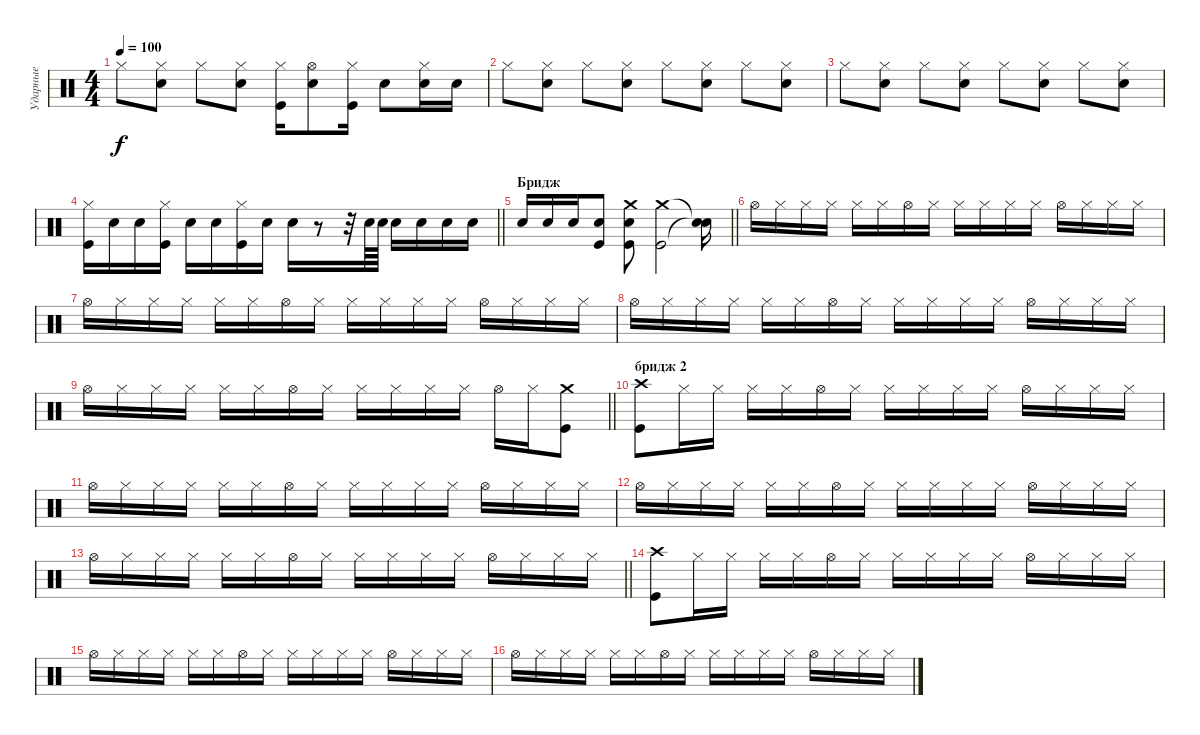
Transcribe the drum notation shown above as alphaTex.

\track ("Ударные" "Ударные") {instrument percussion}
\staff {score}
\articulation defaults
\ts (4 4)
\tempo 100
\clef neutral
\ks c "Hi-Hat (closed)".8{dy f}
("Hi-Hat (closed)" "Snare (hit) 2").8 "Hi-Hat (closed)".8 ("Hi-Hat (closed)" "Snare (hit) 2").8 ("Hi-Hat (closed)" "Kick (hit)").16 ("Hi-Hat (open)" "Electric Snare (hit)").8 ("Hi-Hat (closed)" "Kick (hit)").16 "Electric Snare (hit)".8 ("Hi-Hat (closed)" "Electric Snare (hit)").16 "Electric Snare (hit)".16 |
"Hi-Hat (closed)".8 ("Hi-Hat (closed)" "Snare (hit) 2").8 "Hi-Hat (closed)".8 ("Hi-Hat (closed)" "Snare (hit) 2").8 "Hi-Hat (closed)".8 ("Hi-Hat (closed)" "Snare (hit) 2").8 "Hi-Hat (closed)".8 ("Hi-Hat (closed)" "Snare (hit) 2").8 |
"Hi-Hat (closed)".8 ("Hi-Hat (closed)" "Snare (hit) 2").8 "Hi-Hat (closed)".8 ("Hi-Hat (closed)" "Snare (hit) 2").8 "Hi-Hat (closed)".8 ("Hi-Hat (closed)" "Snare (hit) 2").8 "Hi-Hat (closed)".8 ("Hi-Hat (closed)" "Snare (hit) 2").8 |
\barLineRight lightlight
("Hi-Hat (closed)" "Kick (hit)").16 "Electric Snare (hit)".16 "Electric Snare (hit)".16 ("Hi-Hat (closed)" "Kick (hit)").16 "Electric Snare (hit)".16 "Electric Snare (hit)".16 ("Hi-Hat (closed)" "Kick (hit)").16 "Electric Snare (hit)".16 "Electric Snare (hit)".16 r.8 r.32 "Electric Snare (hit)".64 "Electric Snare (hit)".64 "Electric Snare (hit)".16 "Electric Snare (hit)".16 "Electric Snare (hit)".16 "Electric Snare (hit)".16 |
\section ("" "Бридж")
\barLineRight lightlight "Electric Snare (hit)".16 "Electric Snare (hit)".16 "Electric Snare (hit)".16
("Electric Snare (hit)" "Kick (hit)").8 ("Electric Snare (hit)" "Kick (hit)" "Crash medium (hit)").8 ("Kick (hit)" "Crash medium (hit)").2 ("Snare (hit)"{t} "Snare (hit)"{t}).16 |
"Hi-Hat (open)".16 "Hi-Hat (closed)".16 "Hi-Hat (closed)".16 "Hi-Hat (closed)".16 "Hi-Hat (closed)".16 "Hi-Hat (closed)".16 "Hi-Hat (open)".16 "Hi-Hat (closed)".16 "Hi-Hat (closed)".16 "Hi-Hat (closed)".16 "Hi-Hat (closed)".16 "Hi-Hat (closed)".16 "Hi-Hat (open)".16 "Hi-Hat (closed)".16 "Hi-Hat (closed)".16 "Hi-Hat (closed)".16 |
"Hi-Hat (open)".16 "Hi-Hat (closed)".16 "Hi-Hat (closed)".16 "Hi-Hat (closed)".16 "Hi-Hat (closed)".16 "Hi-Hat (closed)".16 "Hi-Hat (open)".16 "Hi-Hat (closed)".16 "Hi-Hat (closed)".16 "Hi-Hat (closed)".16 "Hi-Hat (closed)".16 "Hi-Hat (closed)".16 "Hi-Hat (open)".16 "Hi-Hat (closed)".16 "Hi-Hat (closed)".16 "Hi-Hat (closed)".16 |
"Hi-Hat (open)".16 "Hi-Hat (closed)".16 "Hi-Hat (closed)".16 "Hi-Hat (closed)".16 "Hi-Hat (closed)".16 "Hi-Hat (closed)".16 "Hi-Hat (open)".16 "Hi-Hat (closed)".16 "Hi-Hat (closed)".16 "Hi-Hat (closed)".16 "Hi-Hat (closed)".16 "Hi-Hat (closed)".16 "Hi-Hat (open)".16 "Hi-Hat (closed)".16 "Hi-Hat (closed)".16 "Hi-Hat (closed)".16 |
\barLineRight lightlight "Hi-Hat (open)".16 "Hi-Hat (closed)".16 "Hi-Hat (closed)".16 "Hi-Hat (closed)".16 "Hi-Hat (closed)".16 "Hi-Hat (closed)".16 "Hi-Hat (open)".16 "Hi-Hat (closed)".16 "Hi-Hat (closed)".16 "Hi-Hat (closed)".16 "Hi-Hat (closed)".16 "Hi-Hat (closed)".16 "Hi-Hat (open)".16 "Hi-Hat (closed)".16
("Kick (hit)" "Crash medium (hit)").8 |
\section ("" "бридж 2")
("Kick (hit)" "Crash high (hit)").8 "Hi-Hat (closed)".16 "Hi-Hat (closed)".16 "Hi-Hat (closed)".16 "Hi-Hat (closed)".16 "Hi-Hat (open)".16 "Hi-Hat (closed)".16 "Hi-Hat (closed)".16 "Hi-Hat (closed)".16 "Hi-Hat (closed)".16 "Hi-Hat (closed)".16 "Hi-Hat (open)".16 "Hi-Hat (closed)".16 "Hi-Hat (closed)".16 "Hi-Hat (closed)".16 |
"Hi-Hat (open)".16 "Hi-Hat (closed)".16 "Hi-Hat (closed)".16 "Hi-Hat (closed)".16 "Hi-Hat (closed)".16 "Hi-Hat (closed)".16 "Hi-Hat (open)".16 "Hi-Hat (closed)".16 "Hi-Hat (closed)".16 "Hi-Hat (closed)".16 "Hi-Hat (closed)".16 "Hi-Hat (closed)".16 "Hi-Hat (open)".16 "Hi-Hat (closed)".16 "Hi-Hat (closed)".16 "Hi-Hat (closed)".16 |
"Hi-Hat (open)".16 "Hi-Hat (closed)".16 "Hi-Hat (closed)".16 "Hi-Hat (closed)".16 "Hi-Hat (closed)".16 "Hi-Hat (closed)".16 "Hi-Hat (open)".16 "Hi-Hat (closed)".16 "Hi-Hat (closed)".16 "Hi-Hat (closed)".16 "Hi-Hat (closed)".16 "Hi-Hat (closed)".16 "Hi-Hat (open)".16 "Hi-Hat (closed)".16 "Hi-Hat (closed)".16 "Hi-Hat (closed)".16 |
\barLineRight lightlight "Hi-Hat (open)".16 "Hi-Hat (closed)".16 "Hi-Hat (closed)".16 "Hi-Hat (closed)".16 "Hi-Hat (closed)".16 "Hi-Hat (closed)".16 "Hi-Hat (open)".16 "Hi-Hat (closed)".16 "Hi-Hat (closed)".16 "Hi-Hat (closed)".16 "Hi-Hat (closed)".16 "Hi-Hat (closed)".16 "Hi-Hat (open)".16 "Hi-Hat (closed)".16 "Hi-Hat (closed)".16 "Hi-Hat (closed)".16
|
("Kick (hit)" "Crash high (hit)").8 "Hi-Hat (closed)".16 "Hi-Hat (closed)".16 "Hi-Hat (closed)".16 "Hi-Hat (closed)".16 "Hi-Hat (open)".16 "Hi-Hat (closed)".16 "Hi-Hat (closed)".16 "Hi-Hat (closed)".16 "Hi-Hat (closed)".16 "Hi-Hat (closed)".16 "Hi-Hat (open)".16 "Hi-Hat (closed)".16 "Hi-Hat (closed)".16 "Hi-Hat (closed)".16 |
"Hi-Hat (open)".16 "Hi-Hat (closed)".16 "Hi-Hat (closed)".16 "Hi-Hat (closed)".16 "Hi-Hat (closed)".16 "Hi-Hat (closed)".16 "Hi-Hat (open)".16 "Hi-Hat (closed)".16 "Hi-Hat (closed)".16 "Hi-Hat (closed)".16 "Hi-Hat (closed)".16 "Hi-Hat (closed)".16 "Hi-Hat (open)".16 "Hi-Hat (closed)".16 "Hi-Hat (closed)".16 "Hi-Hat (closed)".16 |
"Hi-Hat (open)".16 "Hi-Hat (closed)".16 "Hi-Hat (closed)".16 "Hi-Hat (closed)".16 "Hi-Hat (closed)".16 "Hi-Hat (closed)".16 "Hi-Hat (open)".16 "Hi-Hat (closed)".16 "Hi-Hat (closed)".16 "Hi-Hat (closed)".16 "Hi-Hat (closed)".16 "Hi-Hat (closed)".16 "Hi-Hat (open)".16 "Hi-Hat (closed)".16 "Hi-Hat (closed)".16 "Hi-Hat (closed)".16
